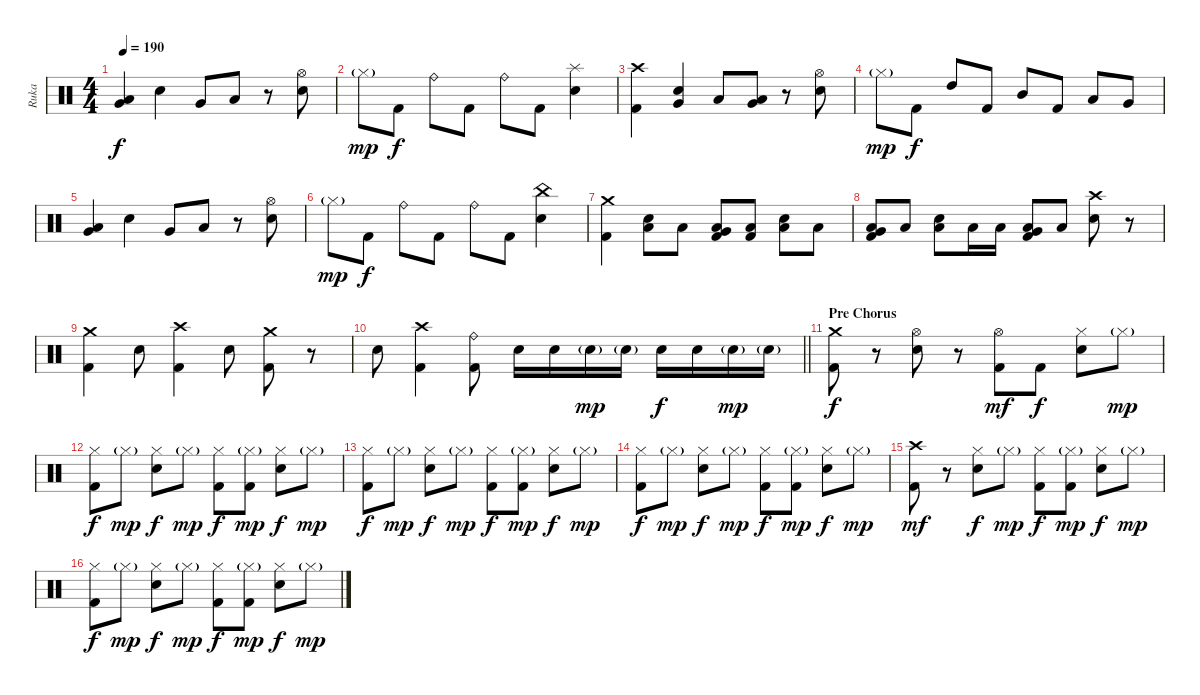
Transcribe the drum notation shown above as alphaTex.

\track ("Ruka " "Ruka ") {instrument percussion}
\staff {score}
\articulation defaults
\ts (4 4)
\tempo 190
\clef neutral
\ks c
("Very Low Tom (hit)" "Low Floor Tom (hit)").4{dy f} "Electric Snare (hit)".4 "Very Low Tom (hit)".8 "Low Tom (hit)".8 r.8 ("Hi-Hat (open)" "Electric Snare (hit)").8 |
"Hi-Hat (closed)"{g}.8{dy mp} "Kick (hit) 2".8{dy f} "Ride (bell)".8 "Kick (hit) 2".8 "Ride (bell)".8 "Kick (hit) 2".8 ("Splash (hit)" "Electric Snare (hit)").4 |
("Crash high (hit)" "Kick (hit) 2").4 ("Very Low Tom (hit)" "Electric Snare (hit)").4 "Low Tom (hit)".8 ("Very Low Tom (hit)" "Low Floor Tom (hit)").8 r.8 ("Hi-Hat (open)" "Electric Snare (hit)").8 |
"Hi-Hat (closed)"{g}.8{dy mp} "Kick (hit) 2".8{dy f} "High Tom (hit)".8 "Kick (hit) 2".8 "Mid Tom (hit)".8 "Kick (hit) 2".8 "Low Tom (hit)".8 "Very Low Tom (hit)".8 |
("Very Low Tom (hit)" "Low Floor Tom (hit)").4 "Electric Snare (hit)".4 "Very Low Tom (hit)".8 "Low Tom (hit)".8 r.8 ("Hi-Hat (open)" "Electric Snare (hit)").8 |
"Hi-Hat (closed)"{g}.8{dy mp} "Kick (hit) 2".8{dy f} "Ride (bell)".8 "Kick (hit) 2".8 "Ride (bell)".8 "Kick (hit) 2".8 ("China (hit)" "Electric Snare (hit)").4 |
("Crash medium (hit)" "Kick (hit) 2").4 ("Low Floor Tom (hit)" "Electric Snare (hit)").8 "Low Floor Tom (hit)".8 ("Very Low Tom (hit)" "Low Floor Tom (hit)" "Kick (hit) 2").8 ("Low Floor Tom (hit)" "Kick (hit) 2").8 ("Low Floor Tom (hit)" "Electric Snare (hit)").8 "Low Floor Tom (hit)".8 |
("Very Low Tom (hit)" "Low Floor Tom (hit)" "Kick (hit) 2").8 "Low Floor Tom (hit)".8 ("Low Floor Tom (hit)" "Electric Snare (hit)").8 "Low Floor Tom (hit)".16 "Low Floor Tom (hit)".16 ("Very Low Tom (hit)" "Low Floor Tom (hit)" "Kick (hit) 2").8 "Low Floor Tom (hit)".8 ("Crash high (hit)" "Electric Snare (hit)").8 r.8 |
("Crash medium (hit)" "Kick (hit) 2").4 "Electric Snare (hit)".8 ("Crash high (hit)" "Kick (hit) 2").4 "Electric Snare (hit)".8 ("Crash medium (hit)" "Kick (hit) 2").8 r.8 |
\barLineRight lightlight "Electric Snare (hit)".8
("Crash high (hit)" "Kick (hit) 2").4 ("Ride (bell)" "Kick (hit) 2").8 "Electric Snare (hit)".16 "Electric Snare (hit)".16 "Electric Snare (hit)"{g}.16{dy mp} "Electric Snare (hit)"{g}.16 "Electric Snare (hit)".16{dy f} "Electric Snare (hit)".16 "Electric Snare (hit)"{g}.16{dy mp} "Electric Snare (hit)"{g}.16 |
\section ("" "Pre Chorus")
("Crash medium (hit)" "Kick (hit) 2").8{dy f} r.8 ("Hi-Hat (open)" "Electric Snare (hit)").8 r.8 ("Hi-Hat (open)" "Kick (hit) 2").8{dy mf} "Kick (hit) 2".8{dy f} ("Hi-Hat (closed)" "Electric Snare (hit)").8 "Hi-Hat (closed)"{g}.8{dy mp} |
("Hi-Hat (closed)" "Kick (hit) 2").8{dy f} "Hi-Hat (closed)"{g}.8{dy mp} ("Hi-Hat (closed)" "Electric Snare (hit)").8{dy f} "Hi-Hat (closed)"{g}.8{dy mp} ("Hi-Hat (closed)" "Kick (hit) 2").8{dy f} ("Hi-Hat (closed)"{g} "Kick (hit) 2").8{dy mp} ("Hi-Hat (closed)" "Electric Snare (hit)").8{dy f} "Hi-Hat (closed)"{g}.8{dy mp} |
("Hi-Hat (closed)" "Kick (hit) 2").8{dy f} "Hi-Hat (closed)"{g}.8{dy mp} ("Hi-Hat (closed)" "Electric Snare (hit)").8{dy f} "Hi-Hat (closed)"{g}.8{dy mp} ("Hi-Hat (closed)" "Kick (hit) 2").8{dy f} ("Hi-Hat (closed)"{g} "Kick (hit) 2").8{dy mp} ("Hi-Hat (closed)" "Electric Snare (hit)").8{dy f} "Hi-Hat (closed)"{g}.8{dy mp} |
("Hi-Hat (closed)" "Kick (hit) 2").8{dy f} "Hi-Hat (closed)"{g}.8{dy mp} ("Hi-Hat (closed)" "Electric Snare (hit)").8{dy f} "Hi-Hat (closed)"{g}.8{dy mp} ("Hi-Hat (closed)" "Kick (hit) 2").8{dy f} ("Hi-Hat (closed)"{g} "Kick (hit) 2").8{dy mp} ("Hi-Hat (closed)" "Electric Snare (hit)").8{dy f} "Hi-Hat (closed)"{g}.8{dy mp} |
("Crash high (hit)" "Kick (hit) 2").8{dy mf} r.8 ("Hi-Hat (closed)" "Electric Snare (hit)").8{dy f} "Hi-Hat (closed)"{g}.8{dy mp} ("Hi-Hat (closed)" "Kick (hit) 2").8{dy f} ("Hi-Hat (closed)"{g} "Kick (hit) 2").8{dy mp} ("Hi-Hat (closed)" "Electric Snare (hit)").8{dy f} "Hi-Hat (closed)"{g}.8{dy mp} |
("Hi-Hat (closed)" "Kick (hit) 2").8{dy f} "Hi-Hat (closed)"{g}.8{dy mp} ("Hi-Hat (closed)" "Electric Snare (hit)").8{dy f} "Hi-Hat (closed)"{g}.8{dy mp} ("Hi-Hat (closed)" "Kick (hit) 2").8{dy f} ("Hi-Hat (closed)"{g} "Kick (hit) 2").8{dy mp} ("Hi-Hat (closed)" "Electric Snare (hit)").8{dy f} "Hi-Hat (closed)"{g}.8{dy mp}
